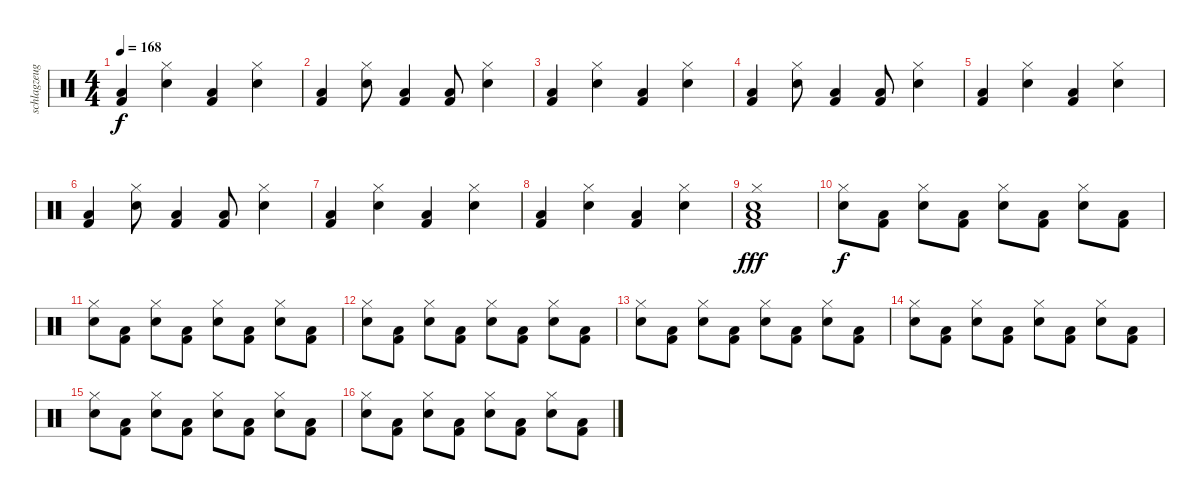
\track ("schlagzeug" "schlagzeug") {instrument percussion}
\staff {score}
\articulation defaults
\ts (4 4)
\tempo 168
\clef neutral
\ks c
("Low Floor Tom (hit)" "Kick (hit) 2").4{dy f} ("Electric Snare (hit)" "Hi-Hat (closed)").4 ("Low Floor Tom (hit)" "Kick (hit) 2").4 ("Electric Snare (hit)" "Hi-Hat (closed)").4 |
("Low Floor Tom (hit)" "Kick (hit) 2").4 ("Electric Snare (hit)" "Hi-Hat (closed)").8 ("Low Floor Tom (hit)" "Kick (hit) 2").4 ("Low Floor Tom (hit)" "Kick (hit) 2").8 ("Electric Snare (hit)" "Hi-Hat (closed)").4 |
("Low Floor Tom (hit)" "Kick (hit) 2").4 ("Electric Snare (hit)" "Hi-Hat (closed)").4 ("Low Floor Tom (hit)" "Kick (hit) 2").4 ("Electric Snare (hit)" "Hi-Hat (closed)").4 |
("Low Floor Tom (hit)" "Kick (hit) 2").4 ("Electric Snare (hit)" "Hi-Hat (closed)").8 ("Low Floor Tom (hit)" "Kick (hit) 2").4 ("Low Floor Tom (hit)" "Kick (hit) 2").8 ("Electric Snare (hit)" "Hi-Hat (closed)").4 |
("Low Floor Tom (hit)" "Kick (hit) 2").4 ("Electric Snare (hit)" "Hi-Hat (closed)").4 ("Low Floor Tom (hit)" "Kick (hit) 2").4 ("Electric Snare (hit)" "Hi-Hat (closed)").4 |
("Low Floor Tom (hit)" "Kick (hit) 2").4 ("Electric Snare (hit)" "Hi-Hat (closed)").8 ("Low Floor Tom (hit)" "Kick (hit) 2").4 ("Low Floor Tom (hit)" "Kick (hit) 2").8 ("Electric Snare (hit)" "Hi-Hat (closed)").4 |
("Low Floor Tom (hit)" "Kick (hit) 2").4 ("Electric Snare (hit)" "Hi-Hat (closed)").4 ("Low Floor Tom (hit)" "Kick (hit) 2").4 ("Electric Snare (hit)" "Hi-Hat (closed)").4 |
("Low Floor Tom (hit)" "Kick (hit) 2").4 ("Electric Snare (hit)" "Hi-Hat (closed)").4 ("Low Floor Tom (hit)" "Kick (hit) 2").4 ("Electric Snare (hit)" "Hi-Hat (closed)").4 |
("Low Tom (hit)" "Electric Snare (hit)" "Hi-Hat (closed)" "Kick (hit) 2").1{dy fff} |
("Electric Snare (hit)" "Hi-Hat (closed)").8{dy f} ("Low Floor Tom (hit)" "Kick (hit) 2").8 ("Electric Snare (hit)" "Hi-Hat (closed)").8 ("Low Floor Tom (hit)" "Kick (hit) 2").8 ("Electric Snare (hit)" "Hi-Hat (closed)").8 ("Low Floor Tom (hit)" "Kick (hit) 2").8 ("Electric Snare (hit)" "Hi-Hat (closed)").8 ("Low Floor Tom (hit)" "Kick (hit) 2").8 |
("Electric Snare (hit)" "Hi-Hat (closed)").8 ("Low Floor Tom (hit)" "Kick (hit) 2").8 ("Electric Snare (hit)" "Hi-Hat (closed)").8 ("Low Floor Tom (hit)" "Kick (hit) 2").8 ("Electric Snare (hit)" "Hi-Hat (closed)").8 ("Low Floor Tom (hit)" "Kick (hit) 2").8 ("Electric Snare (hit)" "Hi-Hat (closed)").8 ("Low Floor Tom (hit)" "Kick (hit) 2").8 |
("Electric Snare (hit)" "Hi-Hat (closed)").8 ("Low Floor Tom (hit)" "Kick (hit) 2").8 ("Electric Snare (hit)" "Hi-Hat (closed)").8 ("Low Floor Tom (hit)" "Kick (hit) 2").8 ("Electric Snare (hit)" "Hi-Hat (closed)").8 ("Low Floor Tom (hit)" "Kick (hit) 2").8 ("Electric Snare (hit)" "Hi-Hat (closed)").8 ("Low Floor Tom (hit)" "Kick (hit) 2").8 |
("Electric Snare (hit)" "Hi-Hat (closed)").8 ("Low Floor Tom (hit)" "Kick (hit) 2").8 ("Electric Snare (hit)" "Hi-Hat (closed)").8 ("Low Floor Tom (hit)" "Kick (hit) 2").8 ("Electric Snare (hit)" "Hi-Hat (closed)").8 ("Low Floor Tom (hit)" "Kick (hit) 2").8 ("Electric Snare (hit)" "Hi-Hat (closed)").8 ("Low Floor Tom (hit)" "Kick (hit) 2").8 |
("Electric Snare (hit)" "Hi-Hat (closed)").8{volume 14} ("Low Floor Tom (hit)" "Kick (hit) 2").8 ("Electric Snare (hit)" "Hi-Hat (closed)").8 ("Low Floor Tom (hit)" "Kick (hit) 2").8 ("Electric Snare (hit)" "Hi-Hat (closed)").8 ("Low Floor Tom (hit)" "Kick (hit) 2").8 ("Electric Snare (hit)" "Hi-Hat (closed)").8 ("Low Floor Tom (hit)" "Kick (hit) 2").8 |
("Electric Snare (hit)" "Hi-Hat (closed)").8 ("Low Floor Tom (hit)" "Kick (hit) 2").8 ("Electric Snare (hit)" "Hi-Hat (closed)").8 ("Low Floor Tom (hit)" "Kick (hit) 2").8 ("Electric Snare (hit)" "Hi-Hat (closed)").8 ("Low Floor Tom (hit)" "Kick (hit) 2").8 ("Electric Snare (hit)" "Hi-Hat (closed)").8 ("Low Floor Tom (hit)" "Kick (hit) 2").8 |
("Electric Snare (hit)" "Hi-Hat (closed)").8 ("Low Floor Tom (hit)" "Kick (hit) 2").8 ("Electric Snare (hit)" "Hi-Hat (closed)").8 ("Low Floor Tom (hit)" "Kick (hit) 2").8 ("Electric Snare (hit)" "Hi-Hat (closed)").8 ("Low Floor Tom (hit)" "Kick (hit) 2").8 ("Electric Snare (hit)" "Hi-Hat (closed)").8 ("Low Floor Tom (hit)" "Kick (hit) 2").8
